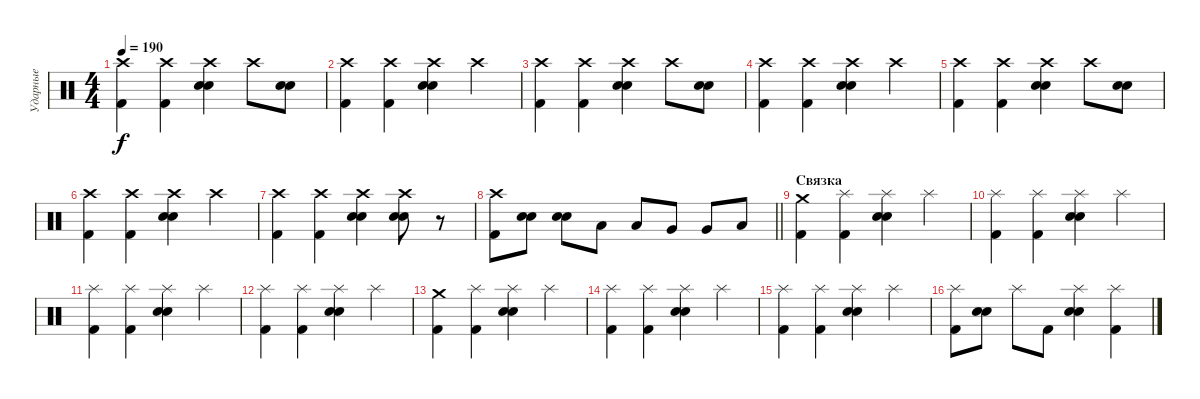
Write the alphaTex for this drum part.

\track ("Ударные" "Ударные") {instrument percussion}
\staff {score}
\articulation defaults
\ts (4 4)
\tempo 190
\clef neutral
\ks c
("Crash high (hit)" "Kick (hit) 2").4{dy f} ("Crash high (hit)" "Kick (hit) 2").4 ("Crash high (hit)" "Electric Snare (hit)" "Snare (hit) 2").4 "Crash high (hit)".8 ("Electric Snare (hit)" "Snare (hit) 2").8 |
("Crash high (hit)" "Kick (hit) 2").4 ("Crash high (hit)" "Kick (hit) 2").4 ("Crash high (hit)" "Electric Snare (hit)" "Snare (hit) 2").4 "Crash high (hit)".4 |
("Crash high (hit)" "Kick (hit) 2").4 ("Crash high (hit)" "Kick (hit) 2").4 ("Crash high (hit)" "Electric Snare (hit)" "Snare (hit) 2").4 "Crash high (hit)".8 ("Electric Snare (hit)" "Snare (hit) 2").8 |
("Crash high (hit)" "Kick (hit) 2").4 ("Crash high (hit)" "Kick (hit) 2").4 ("Crash high (hit)" "Electric Snare (hit)" "Snare (hit) 2").4 "Crash high (hit)".4 |
("Crash high (hit)" "Kick (hit) 2").4 ("Crash high (hit)" "Kick (hit) 2").4 ("Crash high (hit)" "Electric Snare (hit)" "Snare (hit) 2").4 "Crash high (hit)".8 ("Electric Snare (hit)" "Snare (hit) 2").8 |
("Crash high (hit)" "Kick (hit) 2").4 ("Crash high (hit)" "Kick (hit) 2").4 ("Crash high (hit)" "Electric Snare (hit)" "Snare (hit) 2").4 "Crash high (hit)".4 |
("Crash high (hit)" "Kick (hit) 2").4 ("Crash high (hit)" "Kick (hit) 2").4 ("Crash high (hit)" "Electric Snare (hit)" "Snare (hit) 2").4 ("Crash high (hit)" "Electric Snare (hit)" "Snare (hit) 2").8 r.8 |
\barLineRight lightlight
("Crash high (hit)" "Kick (hit) 2").8 ("Electric Snare (hit)" "Snare (hit) 2").8 ("Electric Snare (hit)" "Snare (hit) 2").8 "Low Tom (hit)".8 "Low Tom (hit)".8 "Very Low Tom (hit)".8 "Very Low Tom (hit)".8 "Low Floor Tom (hit)".8 |
\section ("" "Связка")
("Crash medium (hit)" "Kick (hit) 2").4 ("Splash (hit)" "Kick (hit) 2").4 ("Splash (hit)" "Electric Snare (hit)" "Snare (hit) 2").4 "Splash (hit)".4 |
("Splash (hit)" "Kick (hit) 2").4 ("Splash (hit)" "Kick (hit) 2").4 ("Splash (hit)" "Electric Snare (hit)" "Snare (hit) 2").4 "Splash (hit)".4 |
("Splash (hit)" "Kick (hit) 2").4 ("Splash (hit)" "Kick (hit) 2").4 ("Splash (hit)" "Electric Snare (hit)" "Snare (hit) 2").4 "Splash (hit)".4 |
("Splash (hit)" "Kick (hit) 2").4 ("Splash (hit)" "Kick (hit) 2").4 ("Splash (hit)" "Electric Snare (hit)" "Snare (hit) 2").4 "Splash (hit)".4 |
("Crash medium (hit)" "Kick (hit) 2").4 ("Splash (hit)" "Kick (hit) 2").4 ("Splash (hit)" "Electric Snare (hit)" "Snare (hit) 2").4 "Splash (hit)".4 |
("Splash (hit)" "Kick (hit) 2").4 ("Splash (hit)" "Kick (hit) 2").4 ("Splash (hit)" "Electric Snare (hit)" "Snare (hit) 2").4 "Splash (hit)".4 |
("Splash (hit)" "Kick (hit) 2").4 ("Splash (hit)" "Kick (hit) 2").4 ("Splash (hit)" "Electric Snare (hit)" "Snare (hit) 2").4 "Splash (hit)".4 |
("Splash (hit)" "Kick (hit) 2").8 ("Electric Snare (hit)" "Snare (hit) 2").8 "Splash (hit)".8 "Kick (hit) 2".8 ("Splash (hit)" "Electric Snare (hit)" "Snare (hit) 2").4 ("Splash (hit)" "Kick (hit) 2").4
